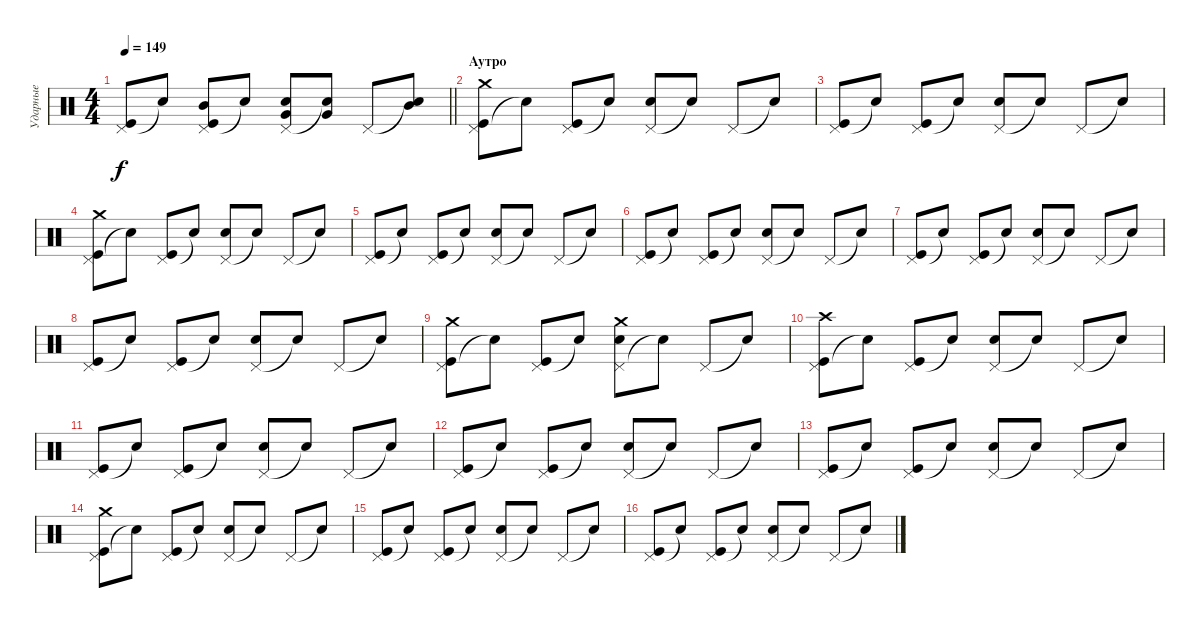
\track ("Ударные" "Ударные") {instrument percussion}
\staff {score}
\articulation defaults
\ts (4 4)
\tempo 149
\clef neutral
\barLineRight lightlight
\ks c
("Pedal Hi-Hat (hit)" "Kick (hit)").8{dy f} "Snare (hit)"{t}.8 ("Pedal Hi-Hat (hit)" "Kick (hit)" "Mid Tom (hit)").8 "Snare (hit)"{t}.8 ("Pedal Hi-Hat (hit)" "Snare (hit) 2" "Very Low Tom (hit)").8 ("Snare (hit)"{t} "Very Low Tom (hit)").8 "Pedal Hi-Hat (hit)".8 ("Snare (hit)"{t} "Mid Tom (hit)").8 |
\section ("" "Аутро")
("Pedal Hi-Hat (hit)" "Kick (hit)" "Crash medium (hit)").8 "Snare (hit)"{t}.8 ("Pedal Hi-Hat (hit)" "Kick (hit)").8 "Snare (hit)"{t}.8 ("Pedal Hi-Hat (hit)" "Snare (hit) 2").8 "Snare (hit)"{t}.8 "Pedal Hi-Hat (hit)".8 "Snare (hit)"{t}.8 |
("Pedal Hi-Hat (hit)" "Kick (hit)").8 "Snare (hit)"{t}.8 ("Pedal Hi-Hat (hit)" "Kick (hit)").8 "Snare (hit)"{t}.8 ("Pedal Hi-Hat (hit)" "Snare (hit) 2").8 "Snare (hit)"{t}.8 "Pedal Hi-Hat (hit)".8 "Snare (hit)"{t}.8 |
("Pedal Hi-Hat (hit)" "Kick (hit)" "Crash medium (hit)").8 "Snare (hit)"{t}.8 ("Pedal Hi-Hat (hit)" "Kick (hit)").8 "Snare (hit)"{t}.8 ("Pedal Hi-Hat (hit)" "Snare (hit) 2").8 "Snare (hit)"{t}.8 "Pedal Hi-Hat (hit)".8 "Snare (hit)"{t}.8 |
("Pedal Hi-Hat (hit)" "Kick (hit)").8 "Snare (hit)"{t}.8 ("Pedal Hi-Hat (hit)" "Kick (hit)").8 "Snare (hit)"{t}.8 ("Pedal Hi-Hat (hit)" "Snare (hit) 2").8 "Snare (hit)"{t}.8 "Pedal Hi-Hat (hit)".8 "Snare (hit)"{t}.8 |
("Pedal Hi-Hat (hit)" "Kick (hit)").8 "Snare (hit)"{t}.8 ("Pedal Hi-Hat (hit)" "Kick (hit)").8 "Snare (hit)"{t}.8 ("Pedal Hi-Hat (hit)" "Snare (hit) 2").8 "Snare (hit)"{t}.8 "Pedal Hi-Hat (hit)".8 "Snare (hit)"{t}.8 |
("Pedal Hi-Hat (hit)" "Kick (hit)").8 "Snare (hit)"{t}.8 ("Pedal Hi-Hat (hit)" "Kick (hit)").8 "Snare (hit)"{t}.8 ("Pedal Hi-Hat (hit)" "Snare (hit) 2").8 "Snare (hit)"{t}.8 "Pedal Hi-Hat (hit)".8 "Snare (hit)"{t}.8 |
("Pedal Hi-Hat (hit)" "Kick (hit)").8 "Snare (hit)"{t}.8 ("Pedal Hi-Hat (hit)" "Kick (hit)").8 "Snare (hit)"{t}.8 ("Pedal Hi-Hat (hit)" "Snare (hit) 2").8 "Snare (hit)"{t}.8 "Pedal Hi-Hat (hit)".8 "Snare (hit)"{t}.8 |
("Pedal Hi-Hat (hit)" "Kick (hit)" "Crash medium (hit)").8 "Snare (hit)"{t}.8 ("Pedal Hi-Hat (hit)" "Kick (hit)").8 "Snare (hit)"{t}.8 ("Pedal Hi-Hat (hit)" "Snare (hit) 2" "Crash medium (hit)").8 "Snare (hit)"{t}.8 "Pedal Hi-Hat (hit)".8 "Snare (hit)"{t}.8 |
("Pedal Hi-Hat (hit)" "Kick (hit)" "Crash high (hit)").8 "Snare (hit)"{t}.8 ("Pedal Hi-Hat (hit)" "Kick (hit)").8 "Snare (hit)"{t}.8 ("Pedal Hi-Hat (hit)" "Snare (hit) 2").8 "Snare (hit)"{t}.8 "Pedal Hi-Hat (hit)".8 "Snare (hit)"{t}.8 |
("Pedal Hi-Hat (hit)" "Kick (hit)").8 "Snare (hit)"{t}.8 ("Pedal Hi-Hat (hit)" "Kick (hit)").8 "Snare (hit)"{t}.8 ("Pedal Hi-Hat (hit)" "Snare (hit) 2").8 "Snare (hit)"{t}.8 "Pedal Hi-Hat (hit)".8 "Snare (hit)"{t}.8 |
("Pedal Hi-Hat (hit)" "Kick (hit)").8 "Snare (hit)"{t}.8 ("Pedal Hi-Hat (hit)" "Kick (hit)").8 "Snare (hit)"{t}.8 ("Pedal Hi-Hat (hit)" "Snare (hit) 2").8 "Snare (hit)"{t}.8 "Pedal Hi-Hat (hit)".8 "Snare (hit)"{t}.8 |
("Pedal Hi-Hat (hit)" "Kick (hit)").8 "Snare (hit)"{t}.8 ("Pedal Hi-Hat (hit)" "Kick (hit)").8 "Snare (hit)"{t}.8 ("Pedal Hi-Hat (hit)" "Snare (hit) 2").8 "Snare (hit)"{t}.8 "Pedal Hi-Hat (hit)".8 "Snare (hit)"{t}.8 |
("Pedal Hi-Hat (hit)" "Kick (hit)" "Crash medium (hit)").8 "Snare (hit)"{t}.8 ("Pedal Hi-Hat (hit)" "Kick (hit)").8 "Snare (hit)"{t}.8 ("Pedal Hi-Hat (hit)" "Snare (hit) 2").8 "Snare (hit)"{t}.8 "Pedal Hi-Hat (hit)".8 "Snare (hit)"{t}.8 |
("Pedal Hi-Hat (hit)" "Kick (hit)").8 "Snare (hit)"{t}.8 ("Pedal Hi-Hat (hit)" "Kick (hit)").8 "Snare (hit)"{t}.8 ("Pedal Hi-Hat (hit)" "Snare (hit) 2").8 "Snare (hit)"{t}.8 "Pedal Hi-Hat (hit)".8 "Snare (hit)"{t}.8 |
("Pedal Hi-Hat (hit)" "Kick (hit)").8 "Snare (hit)"{t}.8 ("Pedal Hi-Hat (hit)" "Kick (hit)").8 "Snare (hit)"{t}.8 ("Pedal Hi-Hat (hit)" "Snare (hit) 2").8 "Snare (hit)"{t}.8 "Pedal Hi-Hat (hit)".8 "Snare (hit)"{t}.8
